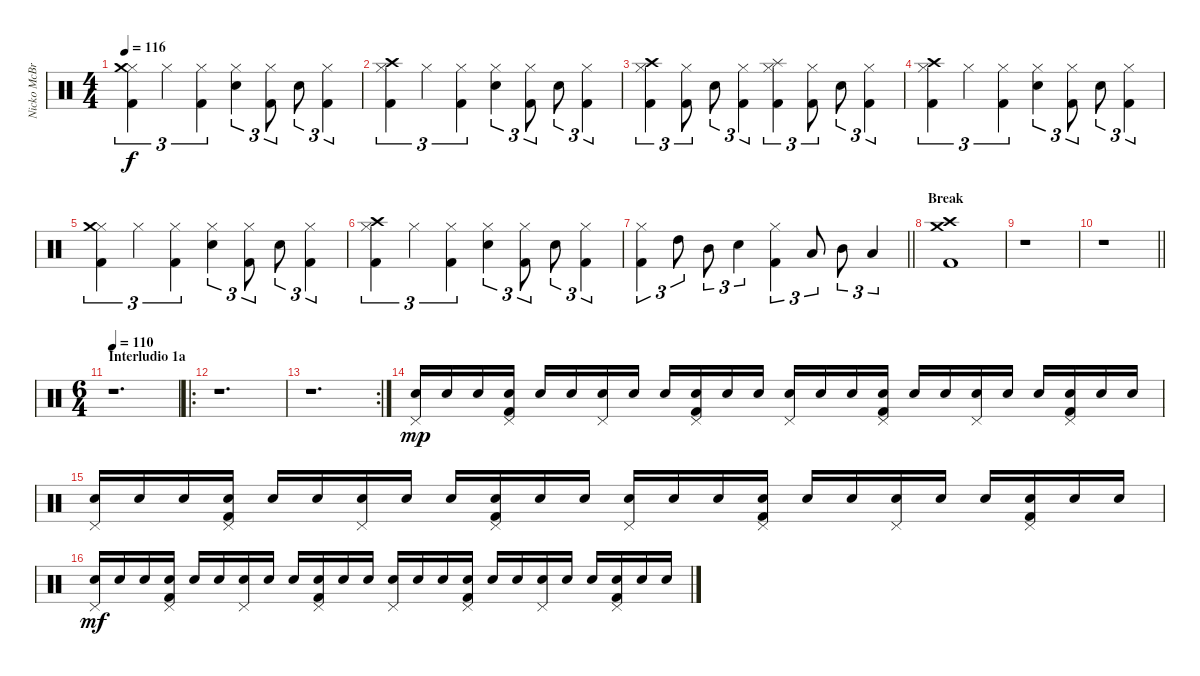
\track ("Nicko McBrain" "Nicko McBr") {instrument percussion}
\staff {score}
\articulation defaults
\ts (4 4)
\tempo 116
\clef neutral
\ks c
("Hi-Hat (closed)" "Crash medium (hit)" "Kick (hit) 2").4{tu (3 2) dy f} "Hi-Hat (closed)".4{tu (3 2)} ("Hi-Hat (closed)" "Kick (hit) 2").4{tu (3 2)} ("Hi-Hat (closed)" "Snare (hit) 2").4{tu (3 2)} ("Hi-Hat (closed)" "Kick (hit) 2").8{tu (3 2)} "Snare (hit) 2".8{tu (3 2)} ("Hi-Hat (closed)" "Kick (hit) 2").4{tu (3 2)} |
("Hi-Hat (closed)" "Crash high (hit)" "Kick (hit) 2").4{tu (3 2)} "Hi-Hat (closed)".4{tu (3 2)} ("Hi-Hat (closed)" "Kick (hit) 2").4{tu (3 2)} ("Hi-Hat (closed)" "Snare (hit) 2").4{tu (3 2)} ("Hi-Hat (closed)" "Kick (hit) 2").8{tu (3 2)} "Snare (hit) 2".8{tu (3 2)} ("Hi-Hat (closed)" "Kick (hit) 2").4{tu (3 2)} |
("Hi-Hat (closed)" "Crash high (hit)" "Kick (hit) 2").4{tu (3 2)} ("Hi-Hat (closed)" "Kick (hit) 2").8{tu (3 2)} "Snare (hit) 2".8{tu (3 2)} ("Hi-Hat (closed)" "Kick (hit) 2").4{tu (3 2)} ("Hi-Hat (closed)" "Splash (hit)" "Kick (hit) 2").4{tu (3 2)} ("Hi-Hat (closed)" "Kick (hit) 2").8{tu (3 2)} "Snare (hit) 2".8{tu (3 2)} ("Hi-Hat (closed)" "Kick (hit) 2").4{tu (3 2)} |
("Hi-Hat (closed)" "Crash high (hit)" "Kick (hit) 2").4{tu (3 2)} "Hi-Hat (closed)".4{tu (3 2)} ("Hi-Hat (closed)" "Kick (hit) 2").4{tu (3 2)} ("Hi-Hat (closed)" "Snare (hit) 2").4{tu (3 2)} ("Hi-Hat (closed)" "Kick (hit) 2").8{tu (3 2)} "Snare (hit) 2".8{tu (3 2)} ("Hi-Hat (closed)" "Kick (hit) 2").4{tu (3 2)} |
("Hi-Hat (closed)" "Crash medium (hit)" "Kick (hit) 2").4{tu (3 2)} "Hi-Hat (closed)".4{tu (3 2)} ("Hi-Hat (closed)" "Kick (hit) 2").4{tu (3 2)} ("Hi-Hat (closed)" "Snare (hit) 2").4{tu (3 2)} ("Hi-Hat (closed)" "Kick (hit) 2").8{tu (3 2)} "Snare (hit) 2".8{tu (3 2)} ("Hi-Hat (closed)" "Kick (hit) 2").4{tu (3 2)} |
("Hi-Hat (closed)" "Crash high (hit)" "Kick (hit) 2").4{tu (3 2)} "Hi-Hat (closed)".4{tu (3 2)} ("Hi-Hat (closed)" "Kick (hit) 2").4{tu (3 2)} ("Hi-Hat (closed)" "Snare (hit) 2").4{tu (3 2)} ("Hi-Hat (closed)" "Kick (hit) 2").8{tu (3 2)} "Snare (hit) 2".8{tu (3 2)} ("Hi-Hat (closed)" "Kick (hit) 2").4{tu (3 2)} |
\barLineRight lightlight
("Hi-Hat (closed)" "Kick (hit) 2").4{tu (3 2)} "High Tom (hit)".8{tu (3 2)} "Mid Tom (hit)".8{tu (3 2)} "Snare (hit) 2".4{tu (3 2)} ("Hi-Hat (closed)" "Kick (hit) 2").4{tu (3 2)} "Low Tom (hit)".8{tu (3 2)} "Mid Tom (hit)".8{tu (3 2)} "Low Tom (hit)".4{tu (3 2)} |
\section ("" "Break")
("Crash medium (hit)" "Crash high (hit)" "Kick (hit) 2").1 |
r.1 |
\barLineRight lightlight
r.1 |
\ts (6 4)
\section ("" "Interludio 1a")
\tempo 110
r.1{d} |
\ro
r.1{d} |
\rc 2
r.1{d} |
("Pedal Hi-Hat (hit)" "Snare (hit) 2").16{dy mp} "Snare (hit) 2".16 "Snare (hit) 2".16 ("Pedal Hi-Hat (hit)" "Snare (hit) 2" "Kick (hit) 2").16 "Snare (hit) 2".16 "Snare (hit) 2".16 ("Pedal Hi-Hat (hit)" "Snare (hit) 2").16 "Snare (hit) 2".16 "Snare (hit) 2".16 ("Pedal Hi-Hat (hit)" "Snare (hit) 2" "Kick (hit) 2").16 "Snare (hit) 2".16 "Snare (hit) 2".16 ("Pedal Hi-Hat (hit)" "Snare (hit) 2").16 "Snare (hit) 2".16 "Snare (hit) 2".16 ("Pedal Hi-Hat (hit)" "Snare (hit) 2" "Kick (hit) 2").16 "Snare (hit) 2".16 "Snare (hit) 2".16 ("Pedal Hi-Hat (hit)" "Snare (hit) 2").16 "Snare (hit) 2".16 "Snare (hit) 2".16 ("Pedal Hi-Hat (hit)" "Snare (hit) 2" "Kick (hit) 2").16 "Snare (hit) 2".16 "Snare (hit) 2".16 |
("Pedal Hi-Hat (hit)" "Snare (hit) 2").16 "Snare (hit) 2".16 "Snare (hit) 2".16 ("Pedal Hi-Hat (hit)" "Snare (hit) 2" "Kick (hit) 2").16 "Snare (hit) 2".16 "Snare (hit) 2".16 ("Pedal Hi-Hat (hit)" "Snare (hit) 2").16 "Snare (hit) 2".16 "Snare (hit) 2".16 ("Pedal Hi-Hat (hit)" "Snare (hit) 2" "Kick (hit) 2").16 "Snare (hit) 2".16 "Snare (hit) 2".16 ("Pedal Hi-Hat (hit)" "Snare (hit) 2").16 "Snare (hit) 2".16 "Snare (hit) 2".16 ("Pedal Hi-Hat (hit)" "Snare (hit) 2" "Kick (hit) 2").16 "Snare (hit) 2".16 "Snare (hit) 2".16 ("Pedal Hi-Hat (hit)" "Snare (hit) 2").16 "Snare (hit) 2".16 "Snare (hit) 2".16 ("Pedal Hi-Hat (hit)" "Snare (hit) 2" "Kick (hit) 2").16 "Snare (hit) 2".16 "Snare (hit) 2".16 |
("Pedal Hi-Hat (hit)" "Snare (hit) 2").16{dy mf} "Snare (hit) 2".16 "Snare (hit) 2".16 ("Pedal Hi-Hat (hit)" "Snare (hit) 2" "Kick (hit) 2").16 "Snare (hit) 2".16 "Snare (hit) 2".16 ("Pedal Hi-Hat (hit)" "Snare (hit) 2").16 "Snare (hit) 2".16 "Snare (hit) 2".16 ("Pedal Hi-Hat (hit)" "Snare (hit) 2" "Kick (hit) 2").16 "Snare (hit) 2".16 "Snare (hit) 2".16 ("Pedal Hi-Hat (hit)" "Snare (hit) 2").16 "Snare (hit) 2".16 "Snare (hit) 2".16 ("Pedal Hi-Hat (hit)" "Snare (hit) 2" "Kick (hit) 2").16 "Snare (hit) 2".16 "Snare (hit) 2".16 ("Pedal Hi-Hat (hit)" "Snare (hit) 2").16 "Snare (hit) 2".16 "Snare (hit) 2".16 ("Pedal Hi-Hat (hit)" "Snare (hit) 2" "Kick (hit) 2").16 "Snare (hit) 2".16 "Snare (hit) 2".16
